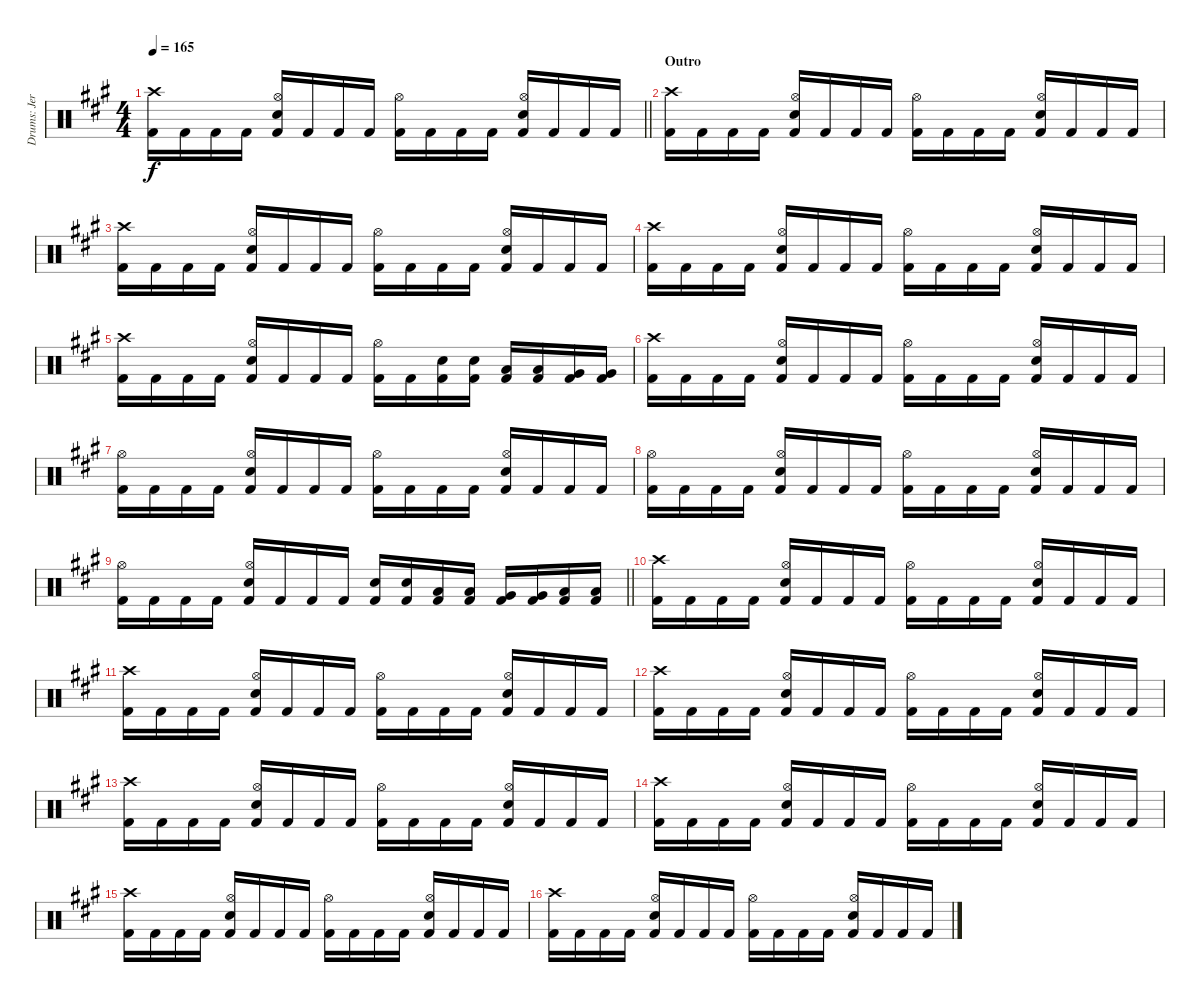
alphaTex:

\track ("Drums: Jere Luokkamäki" "Drums: Jer") {instrument percussion}
\staff {score}
\articulation defaults
\ts (4 4)
\tempo 165
\clef neutral
\barLineRight lightlight
\ks f#minor
("Crash high (hit)" "Kick (hit) 2").16{dy f} "Kick (hit) 2".16 "Kick (hit) 2".16 "Kick (hit) 2".16 ("Hi-Hat (open)" "Electric Snare (hit)" "Kick (hit) 2").16 "Kick (hit) 2".16 "Kick (hit) 2".16 "Kick (hit) 2".16 ("Hi-Hat (open)" "Kick (hit) 2").16 "Kick (hit) 2".16 "Kick (hit) 2".16 "Kick (hit) 2".16 ("Hi-Hat (open)" "Electric Snare (hit)" "Kick (hit) 2").16 "Kick (hit) 2".16 "Kick (hit) 2".16 "Kick (hit) 2".16 |
\section ("" "Outro")
("Crash high (hit)" "Kick (hit) 2").16 "Kick (hit) 2".16 "Kick (hit) 2".16 "Kick (hit) 2".16 ("Hi-Hat (open)" "Electric Snare (hit)" "Kick (hit) 2").16 "Kick (hit) 2".16 "Kick (hit) 2".16 "Kick (hit) 2".16 ("Hi-Hat (open)" "Kick (hit) 2").16 "Kick (hit) 2".16 "Kick (hit) 2".16 "Kick (hit) 2".16 ("Hi-Hat (open)" "Electric Snare (hit)" "Kick (hit) 2").16 "Kick (hit) 2".16 "Kick (hit) 2".16 "Kick (hit) 2".16 |
("Crash high (hit)" "Kick (hit) 2").16 "Kick (hit) 2".16 "Kick (hit) 2".16 "Kick (hit) 2".16 ("Hi-Hat (open)" "Electric Snare (hit)" "Kick (hit) 2").16 "Kick (hit) 2".16 "Kick (hit) 2".16 "Kick (hit) 2".16 ("Hi-Hat (open)" "Kick (hit) 2").16 "Kick (hit) 2".16 "Kick (hit) 2".16 "Kick (hit) 2".16 ("Hi-Hat (open)" "Electric Snare (hit)" "Kick (hit) 2").16 "Kick (hit) 2".16 "Kick (hit) 2".16 "Kick (hit) 2".16 |
("Crash high (hit)" "Kick (hit) 2").16 "Kick (hit) 2".16 "Kick (hit) 2".16 "Kick (hit) 2".16 ("Hi-Hat (open)" "Electric Snare (hit)" "Kick (hit) 2").16 "Kick (hit) 2".16 "Kick (hit) 2".16 "Kick (hit) 2".16 ("Hi-Hat (open)" "Kick (hit) 2").16 "Kick (hit) 2".16 "Kick (hit) 2".16 "Kick (hit) 2".16 ("Hi-Hat (open)" "Electric Snare (hit)" "Kick (hit) 2").16 "Kick (hit) 2".16 "Kick (hit) 2".16 "Kick (hit) 2".16 |
("Crash high (hit)" "Kick (hit) 2").16 "Kick (hit) 2".16 "Kick (hit) 2".16 "Kick (hit) 2".16 ("Hi-Hat (open)" "Electric Snare (hit)" "Kick (hit) 2").16 "Kick (hit) 2".16 "Kick (hit) 2".16 "Kick (hit) 2".16 ("Hi-Hat (open)" "Kick (hit) 2").16 "Kick (hit) 2".16 ("Electric Snare (hit)" "Kick (hit) 2").16 ("Electric Snare (hit)" "Kick (hit) 2").16 ("Low Tom (hit)" "Kick (hit) 2").16 ("Low Tom (hit)" "Kick (hit) 2").16 ("Very Low Tom (hit)" "Kick (hit) 2").16 ("Very Low Tom (hit)" "Kick (hit) 2").16 |
("Crash high (hit)" "Kick (hit) 2").16 "Kick (hit) 2".16 "Kick (hit) 2".16 "Kick (hit) 2".16 ("Hi-Hat (open)" "Electric Snare (hit)" "Kick (hit) 2").16 "Kick (hit) 2".16 "Kick (hit) 2".16 "Kick (hit) 2".16 ("Hi-Hat (open)" "Kick (hit) 2").16 "Kick (hit) 2".16 "Kick (hit) 2".16 "Kick (hit) 2".16 ("Hi-Hat (open)" "Electric Snare (hit)" "Kick (hit) 2").16 "Kick (hit) 2".16 "Kick (hit) 2".16 "Kick (hit) 2".16 |
("Hi-Hat (open)" "Kick (hit) 2").16 "Kick (hit) 2".16 "Kick (hit) 2".16 "Kick (hit) 2".16 ("Hi-Hat (open)" "Electric Snare (hit)" "Kick (hit) 2").16 "Kick (hit) 2".16 "Kick (hit) 2".16 "Kick (hit) 2".16 ("Hi-Hat (open)" "Kick (hit) 2").16 "Kick (hit) 2".16 "Kick (hit) 2".16 "Kick (hit) 2".16 ("Hi-Hat (open)" "Electric Snare (hit)" "Kick (hit) 2").16 "Kick (hit) 2".16 "Kick (hit) 2".16 "Kick (hit) 2".16 |
("Hi-Hat (open)" "Kick (hit) 2").16 "Kick (hit) 2".16 "Kick (hit) 2".16 "Kick (hit) 2".16 ("Hi-Hat (open)" "Electric Snare (hit)" "Kick (hit) 2").16 "Kick (hit) 2".16 "Kick (hit) 2".16 "Kick (hit) 2".16 ("Hi-Hat (open)" "Kick (hit) 2").16 "Kick (hit) 2".16 "Kick (hit) 2".16 "Kick (hit) 2".16 ("Hi-Hat (open)" "Electric Snare (hit)" "Kick (hit) 2").16 "Kick (hit) 2".16 "Kick (hit) 2".16 "Kick (hit) 2".16 |
\barLineRight lightlight
("Hi-Hat (open)" "Kick (hit) 2").16 "Kick (hit) 2".16 "Kick (hit) 2".16 "Kick (hit) 2".16 ("Hi-Hat (open)" "Electric Snare (hit)" "Kick (hit) 2").16 "Kick (hit) 2".16 "Kick (hit) 2".16 "Kick (hit) 2".16 ("Electric Snare (hit)" "Kick (hit) 2").16 ("Electric Snare (hit)" "Kick (hit) 2").16 ("Low Tom (hit)" "Kick (hit) 2").16 ("Low Tom (hit)" "Kick (hit) 2").16 ("Very Low Tom (hit)" "Kick (hit) 2").16 ("Very Low Tom (hit)" "Kick (hit) 2").16 ("Low Tom (hit)" "Kick (hit) 2").16 ("Low Tom (hit)" "Kick (hit) 2").16 |
("Crash high (hit)" "Kick (hit) 2").16 "Kick (hit) 2".16 "Kick (hit) 2".16 "Kick (hit) 2".16 ("Hi-Hat (open)" "Electric Snare (hit)" "Kick (hit) 2").16 "Kick (hit) 2".16 "Kick (hit) 2".16 "Kick (hit) 2".16 ("Hi-Hat (open)" "Kick (hit) 2").16 "Kick (hit) 2".16 "Kick (hit) 2".16 "Kick (hit) 2".16 ("Hi-Hat (open)" "Electric Snare (hit)" "Kick (hit) 2").16 "Kick (hit) 2".16 "Kick (hit) 2".16 "Kick (hit) 2".16 |
("Crash high (hit)" "Kick (hit) 2").16 "Kick (hit) 2".16 "Kick (hit) 2".16 "Kick (hit) 2".16 ("Hi-Hat (open)" "Electric Snare (hit)" "Kick (hit) 2").16 "Kick (hit) 2".16 "Kick (hit) 2".16 "Kick (hit) 2".16 ("Hi-Hat (open)" "Kick (hit) 2").16 "Kick (hit) 2".16 "Kick (hit) 2".16 "Kick (hit) 2".16 ("Hi-Hat (open)" "Electric Snare (hit)" "Kick (hit) 2").16 "Kick (hit) 2".16 "Kick (hit) 2".16 "Kick (hit) 2".16 |
("Crash high (hit)" "Kick (hit) 2").16 "Kick (hit) 2".16 "Kick (hit) 2".16 "Kick (hit) 2".16 ("Hi-Hat (open)" "Electric Snare (hit)" "Kick (hit) 2").16 "Kick (hit) 2".16 "Kick (hit) 2".16 "Kick (hit) 2".16 ("Hi-Hat (open)" "Kick (hit) 2").16 "Kick (hit) 2".16 "Kick (hit) 2".16 "Kick (hit) 2".16 ("Hi-Hat (open)" "Electric Snare (hit)" "Kick (hit) 2").16 "Kick (hit) 2".16 "Kick (hit) 2".16 "Kick (hit) 2".16 |
("Crash high (hit)" "Kick (hit) 2").16 "Kick (hit) 2".16 "Kick (hit) 2".16 "Kick (hit) 2".16 ("Hi-Hat (open)" "Electric Snare (hit)" "Kick (hit) 2").16 "Kick (hit) 2".16 "Kick (hit) 2".16 "Kick (hit) 2".16 ("Hi-Hat (open)" "Kick (hit) 2").16 "Kick (hit) 2".16 "Kick (hit) 2".16 "Kick (hit) 2".16 ("Hi-Hat (open)" "Electric Snare (hit)" "Kick (hit) 2").16 "Kick (hit) 2".16 "Kick (hit) 2".16 "Kick (hit) 2".16 |
("Crash high (hit)" "Kick (hit) 2").16 "Kick (hit) 2".16 "Kick (hit) 2".16 "Kick (hit) 2".16 ("Hi-Hat (open)" "Electric Snare (hit)" "Kick (hit) 2").16 "Kick (hit) 2".16 "Kick (hit) 2".16 "Kick (hit) 2".16 ("Hi-Hat (open)" "Kick (hit) 2").16 "Kick (hit) 2".16 "Kick (hit) 2".16 "Kick (hit) 2".16 ("Hi-Hat (open)" "Electric Snare (hit)" "Kick (hit) 2").16 "Kick (hit) 2".16 "Kick (hit) 2".16 "Kick (hit) 2".16 |
("Crash high (hit)" "Kick (hit) 2").16 "Kick (hit) 2".16 "Kick (hit) 2".16 "Kick (hit) 2".16 ("Hi-Hat (open)" "Electric Snare (hit)" "Kick (hit) 2").16 "Kick (hit) 2".16 "Kick (hit) 2".16 "Kick (hit) 2".16 ("Hi-Hat (open)" "Kick (hit) 2").16 "Kick (hit) 2".16 "Kick (hit) 2".16 "Kick (hit) 2".16 ("Hi-Hat (open)" "Electric Snare (hit)" "Kick (hit) 2").16 "Kick (hit) 2".16 "Kick (hit) 2".16 "Kick (hit) 2".16 |
("Crash high (hit)" "Kick (hit) 2").16 "Kick (hit) 2".16 "Kick (hit) 2".16 "Kick (hit) 2".16 ("Hi-Hat (open)" "Electric Snare (hit)" "Kick (hit) 2").16 "Kick (hit) 2".16 "Kick (hit) 2".16 "Kick (hit) 2".16 ("Hi-Hat (open)" "Kick (hit) 2").16 "Kick (hit) 2".16 "Kick (hit) 2".16 "Kick (hit) 2".16 ("Hi-Hat (open)" "Electric Snare (hit)" "Kick (hit) 2").16 "Kick (hit) 2".16 "Kick (hit) 2".16 "Kick (hit) 2".16
